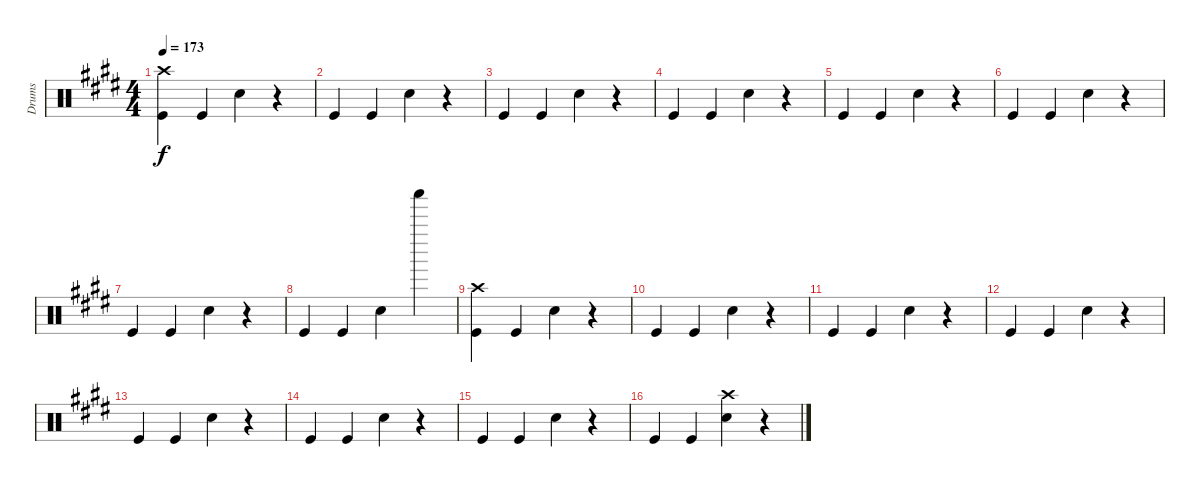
\track ("Drums" "Drums") {instrument percussion}
\staff {score}
\articulation defaults
\ts (4 4)
\tempo 173
\clef neutral
\ks e
("Kick (hit)" "Crash high (hit)").4{dy f} "Kick (hit)".4 "Snare (hit) 2".4 r.4 |
"Kick (hit)".4 "Kick (hit)".4 "Snare (hit) 2".4 r.4 |
"Kick (hit)".4 "Kick (hit)".4 "Snare (hit) 2".4 r.4 |
"Kick (hit)".4 "Kick (hit)".4 "Snare (hit) 2".4 r.4 |
"Kick (hit)".4 "Kick (hit)".4 "Snare (hit) 2".4 r.4 |
"Kick (hit)".4 "Kick (hit)".4 "Snare (hit) 2".4 r.4 |
"Kick (hit)".4 "Kick (hit)".4 "Snare (hit) 2".4 r.4 |
"Kick (hit)".4 "Kick (hit)".4 "Snare (hit) 2".4 "Shaker (hit)".4 |
("Kick (hit)" "Crash high (hit)").4 "Kick (hit)".4 "Snare (hit) 2".4 r.4 |
"Kick (hit)".4 "Kick (hit)".4 "Snare (hit) 2".4 r.4 |
"Kick (hit)".4 "Kick (hit)".4 "Snare (hit) 2".4 r.4 |
"Kick (hit)".4 "Kick (hit)".4 "Snare (hit) 2".4 r.4 |
"Kick (hit)".4 "Kick (hit)".4 "Snare (hit) 2".4 r.4 |
"Kick (hit)".4 "Kick (hit)".4 "Snare (hit) 2".4 r.4 |
"Kick (hit)".4 "Kick (hit)".4 "Snare (hit) 2".4 r.4 |
"Kick (hit)".4 "Kick (hit)".4 ("Snare (hit) 2" "Crash high (hit)").4 r.4
